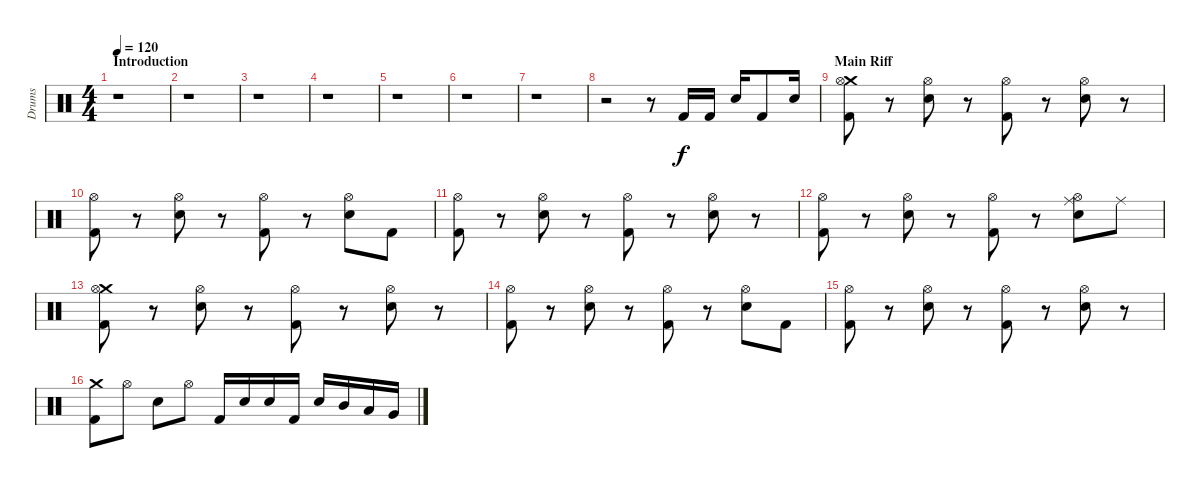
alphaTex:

\track ("Drums" "Drums") {instrument percussion}
\staff {score}
\articulation defaults
\ts (4 4)
\section ("" "Introduction")
\tempo 120
\clef neutral
\ks c
r.1{dy f} |
r.1 |
r.1 |
r.1 |
r.1 |
r.1 |
r.1 |
r.2 r.8 "Kick (hit) 2".16 "Kick (hit) 2".16 "Electric Snare (hit)".16 "Kick (hit) 2".8 "Electric Snare (hit)".16 |
\section ("" "Main Riff")
("Crash medium (hit)" "Hi-Hat (open)" "Kick (hit) 2").8 r.8 ("Hi-Hat (open)" "Electric Snare (hit)").8 r.8 ("Hi-Hat (open)" "Kick (hit) 2").8 r.8 ("Hi-Hat (open)" "Electric Snare (hit)").8 r.8 |
("Hi-Hat (open)" "Kick (hit) 2").8 r.8 ("Hi-Hat (open)" "Electric Snare (hit)").8 r.8 ("Hi-Hat (open)" "Kick (hit) 2").8 r.8 ("Hi-Hat (open)" "Electric Snare (hit)").8 "Kick (hit) 2".8 |
("Hi-Hat (open)" "Kick (hit) 2").8 r.8 ("Hi-Hat (open)" "Electric Snare (hit)").8 r.8 ("Hi-Hat (open)" "Kick (hit) 2").8 r.8 ("Hi-Hat (open)" "Electric Snare (hit)").8 r.8 |
("Hi-Hat (open)" "Kick (hit) 2").8 r.8 ("Hi-Hat (open)" "Electric Snare (hit)").8 r.8 ("Hi-Hat (open)" "Kick (hit) 2").8 r.8 ("Ride (middle)" "Hi-Hat (open)" "Electric Snare (hit)").8 "Ride (middle)".8 |
("Crash medium (hit)" "Hi-Hat (open)" "Kick (hit) 2").8 r.8 ("Hi-Hat (open)" "Electric Snare (hit)").8 r.8 ("Hi-Hat (open)" "Kick (hit) 2").8 r.8 ("Hi-Hat (open)" "Electric Snare (hit)").8 r.8 |
("Hi-Hat (open)" "Kick (hit) 2").8 r.8 ("Hi-Hat (open)" "Electric Snare (hit)").8 r.8 ("Hi-Hat (open)" "Kick (hit) 2").8 r.8 ("Hi-Hat (open)" "Electric Snare (hit)").8 "Kick (hit) 2".8 |
("Hi-Hat (open)" "Kick (hit) 2").8 r.8 ("Hi-Hat (open)" "Electric Snare (hit)").8 r.8 ("Hi-Hat (open)" "Kick (hit) 2").8 r.8 ("Hi-Hat (open)" "Electric Snare (hit)").8 r.8 |
("Crash medium (hit)" "Kick (hit) 2").8 "Hi-Hat (open)".8 "Electric Snare (hit)".8 "Hi-Hat (open)".8 "Kick (hit) 2".16 "Electric Snare (hit)".16 "Electric Snare (hit)".16 "Kick (hit) 2".16 "Electric Snare (hit)".16 "Mid Tom (hit)".16 "Low Tom (hit)".16 "Very Low Tom (hit)".16
